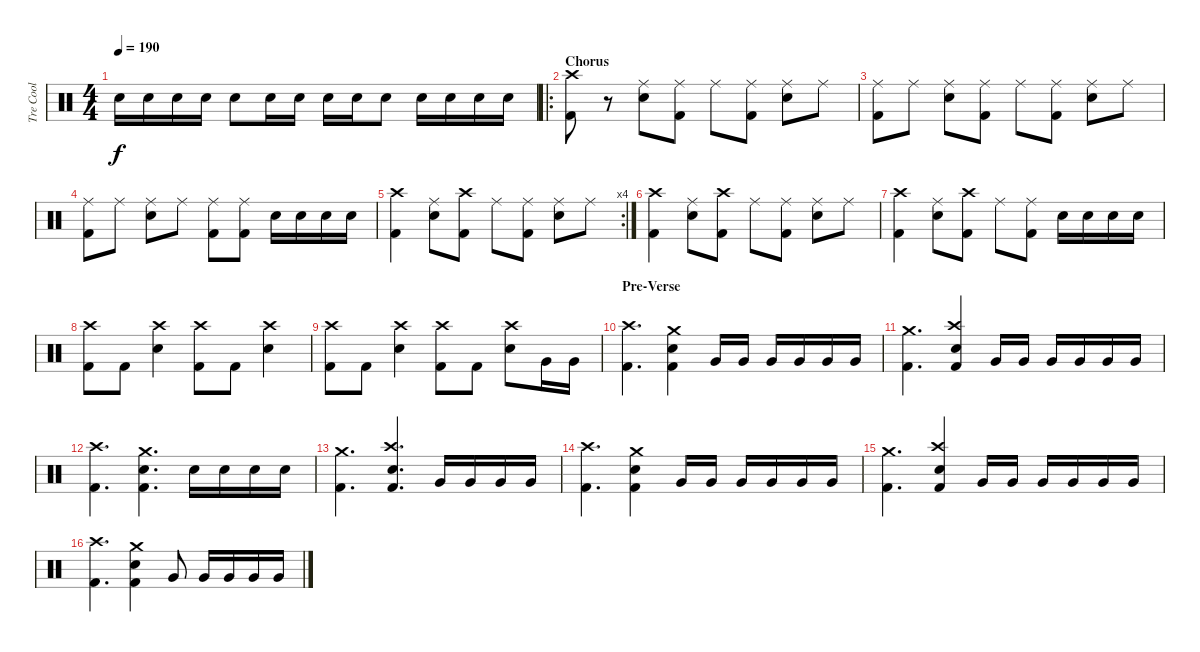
\track ("Tre Cool" "Tre Cool") {instrument percussion}
\staff {score}
\articulation defaults
\ts (4 4)
\tempo 190
\clef neutral
\ks c "Snare (hit) 2".16{dy f} "Snare (hit) 2".16 "Snare (hit) 2".16 "Snare (hit) 2".16 "Snare (hit) 2".8 "Snare (hit) 2".16 "Snare (hit) 2".16 "Snare (hit) 2".16 "Snare (hit) 2".16 "Snare (hit) 2".8 "Snare (hit) 2".16 "Snare (hit) 2".16 "Snare (hit) 2".16 "Snare (hit) 2".16
|
\ro
\section ("" "Chorus")
("Crash high (hit)" "Kick (hit) 2").8 r.8 ("Ride (middle)" "Snare (hit) 2").8 ("Ride (middle)" "Kick (hit) 2").8 "Ride (middle)".8 ("Ride (middle)" "Kick (hit) 2").8 ("Ride (middle)" "Snare (hit) 2").8 "Ride (middle)".8 |
("Ride (middle)" "Kick (hit) 2").8 "Ride (middle)".8 ("Ride (middle)" "Snare (hit) 2").8 ("Ride (middle)" "Kick (hit) 2").8 "Ride (middle)".8 ("Ride (middle)" "Kick (hit) 2").8 ("Ride (middle)" "Snare (hit) 2").8 "Ride (middle)".8 |
("Ride (middle)" "Kick (hit) 2").8 "Ride (middle)".8 ("Ride (middle)" "Snare (hit) 2").8 "Ride (middle)".8 ("Ride (middle)" "Kick (hit) 2").8 ("Ride (middle)" "Kick (hit) 2").8 "Snare (hit) 2".16 "Snare (hit) 2".16 "Snare (hit) 2".16 "Snare (hit) 2".16 |
\rc 4
("Crash high (hit)" "Kick (hit) 2").4 ("Ride (middle)" "Snare (hit) 2").8 ("Crash high (hit)" "Kick (hit) 2").8 "Ride (middle)".8 ("Ride (middle)" "Kick (hit) 2").8 ("Ride (middle)" "Snare (hit) 2").8 "Ride (middle)".8 |
("Crash high (hit)" "Kick (hit) 2").4 ("Ride (middle)" "Snare (hit) 2").8 ("Crash high (hit)" "Kick (hit) 2").8 "Ride (middle)".8 ("Ride (middle)" "Kick (hit) 2").8 ("Ride (middle)" "Snare (hit) 2").8 "Ride (middle)".8 |
("Crash high (hit)" "Kick (hit) 2").4 ("Ride (middle)" "Snare (hit) 2").8 ("Crash high (hit)" "Kick (hit) 2").8 "Ride (middle)".8 ("Ride (middle)" "Kick (hit) 2").8 "Snare (hit) 2".16 "Snare (hit) 2".16 "Snare (hit) 2".16 "Snare (hit) 2".16 |
("Crash high (hit)" "Kick (hit) 2").8 "Kick (hit) 2".8 ("Crash high (hit)" "Snare (hit) 2").4 ("Crash high (hit)" "Kick (hit) 2").8 "Kick (hit) 2".8 ("Crash high (hit)" "Snare (hit) 2").4 |
("Crash high (hit)" "Kick (hit) 2").8 "Kick (hit) 2".8 ("Crash high (hit)" "Snare (hit) 2").4 ("Crash high (hit)" "Kick (hit) 2").8 "Kick (hit) 2".8 ("Crash high (hit)" "Snare (hit) 2").8 "Very Low Tom (hit)".16 "Very Low Tom (hit)".16 |
\section ("" "Pre-Verse")
("Crash high (hit)" "Kick (hit) 2").4{d} ("Crash medium (hit)" "Snare (hit) 2" "Kick (hit) 2").4 "Very Low Tom (hit)".16 "Very Low Tom (hit)".16 "Very Low Tom (hit)".16 "Very Low Tom (hit)".16 "Very Low Tom (hit)".16 "Very Low Tom (hit)".16 |
("Crash medium (hit)" "Kick (hit) 2").4{d} ("Crash high (hit)" "Snare (hit) 2" "Kick (hit) 2").4 "Very Low Tom (hit)".16 "Very Low Tom (hit)".16 "Very Low Tom (hit)".16 "Very Low Tom (hit)".16 "Very Low Tom (hit)".16 "Very Low Tom (hit)".16 |
("Crash high (hit)" "Kick (hit) 2").4{d} ("Crash medium (hit)" "Snare (hit) 2" "Kick (hit) 2").4{d} "Snare (hit) 2".16 "Snare (hit) 2".16 "Snare (hit) 2".16 "Snare (hit) 2".16 |
("Crash medium (hit)" "Kick (hit) 2").4{d} ("Crash high (hit)" "Snare (hit) 2" "Kick (hit) 2").4{d} "Very Low Tom (hit)".16 "Very Low Tom (hit)".16 "Very Low Tom (hit)".16 "Very Low Tom (hit)".16 |
("Crash high (hit)" "Kick (hit) 2").4{d} ("Crash medium (hit)" "Snare (hit) 2" "Kick (hit) 2").4 "Very Low Tom (hit)".16 "Very Low Tom (hit)".16 "Very Low Tom (hit)".16 "Very Low Tom (hit)".16 "Very Low Tom (hit)".16 "Very Low Tom (hit)".16 |
("Crash medium (hit)" "Kick (hit) 2").4{d} ("Crash high (hit)" "Snare (hit) 2" "Kick (hit) 2").4 "Very Low Tom (hit)".16 "Very Low Tom (hit)".16 "Very Low Tom (hit)".16 "Very Low Tom (hit)".16 "Very Low Tom (hit)".16 "Very Low Tom (hit)".16 |
("Crash high (hit)" "Kick (hit) 2").4{d} ("Crash medium (hit)" "Snare (hit) 2" "Kick (hit) 2").4 "Very Low Tom (hit)".8 "Very Low Tom (hit)".16 "Very Low Tom (hit)".16 "Very Low Tom (hit)".16 "Very Low Tom (hit)".16
